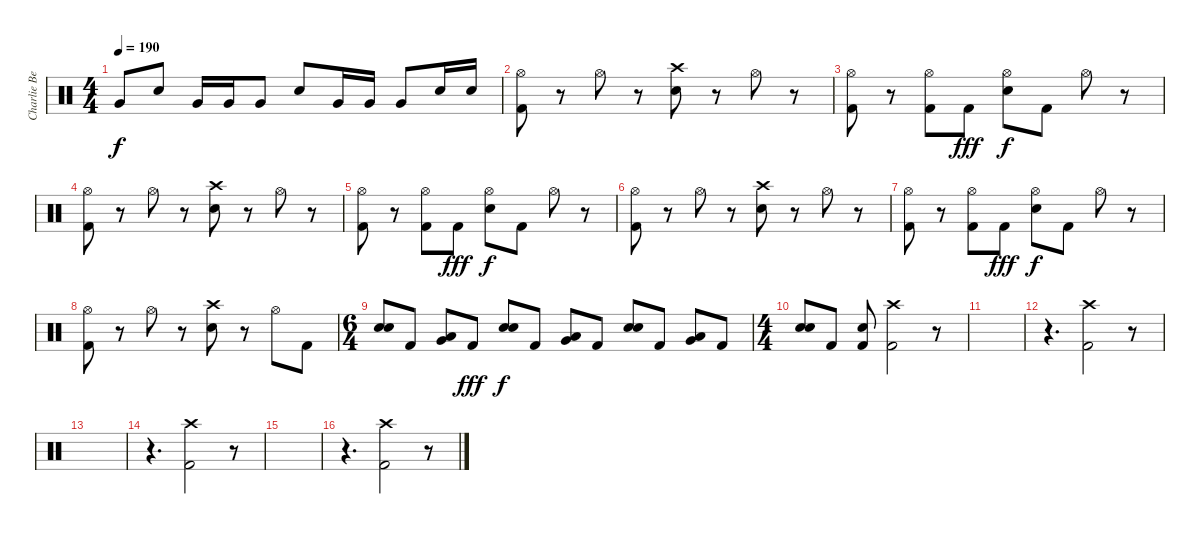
\track ("Charlie Benante" "Charlie Be") {instrument percussion}
\staff {score}
\articulation defaults
\ts (4 4)
\tempo 190
\clef neutral
\ks c "Very Low Tom (hit)".8{dy f} "Snare (hit) 2".8 "Very Low Tom (hit)".16 "Very Low Tom (hit)".16 "Very Low Tom (hit)".8 "Snare (hit) 2".8 "Very Low Tom (hit)".16 "Very Low Tom (hit)".16 "Very Low Tom (hit)".8 "Snare (hit) 2".16 "Snare (hit) 2".16
|
("Kick (hit) 2" "Hi-Hat (open)").8 r.8 "Hi-Hat (open)".8 r.8 ("Snare (hit) 2" "Crash high (hit)").8 r.8 "Hi-Hat (open)".8 r.8 |
("Kick (hit) 2" "Hi-Hat (open)").8 r.8 ("Kick (hit) 2" "Hi-Hat (open)").8 "Kick (hit) 2".8{dy fff} ("Snare (hit) 2" "Hi-Hat (open)").8{dy f} "Kick (hit) 2".8 "Hi-Hat (open)".8 r.8 |
("Kick (hit) 2" "Hi-Hat (open)").8 r.8 "Hi-Hat (open)".8 r.8 ("Snare (hit) 2" "Crash high (hit)").8 r.8 "Hi-Hat (open)".8 r.8 |
("Kick (hit) 2" "Hi-Hat (open)").8 r.8 ("Kick (hit) 2" "Hi-Hat (open)").8 "Kick (hit) 2".8{dy fff} ("Snare (hit) 2" "Hi-Hat (open)").8{dy f} "Kick (hit) 2".8 "Hi-Hat (open)".8 r.8 |
("Kick (hit) 2" "Hi-Hat (open)").8 r.8 "Hi-Hat (open)".8 r.8 ("Snare (hit) 2" "Crash high (hit)").8 r.8 "Hi-Hat (open)".8 r.8 |
("Kick (hit) 2" "Hi-Hat (open)").8 r.8 ("Kick (hit) 2" "Hi-Hat (open)").8 "Kick (hit) 2".8{dy fff} ("Snare (hit) 2" "Hi-Hat (open)").8{dy f} "Kick (hit) 2".8 "Hi-Hat (open)".8 r.8 |
("Kick (hit) 2" "Hi-Hat (open)").8 r.8 "Hi-Hat (open)".8 r.8 ("Snare (hit) 2" "Crash high (hit)").8 r.8 "Hi-Hat (open)".8 "Kick (hit) 2".8 |
\ts (6 4)
("Snare (hit) 2" "Snare (hit) 2").8 "Kick (hit) 2".8 ("Very Low Tom (hit)" "Low Floor Tom (hit)").8 "Kick (hit) 2".8{dy fff} ("Snare (hit) 2" "Snare (hit) 2").8{dy f} "Kick (hit) 2".8 ("Very Low Tom (hit)" "Low Floor Tom (hit)").8 "Kick (hit) 2".8 ("Snare (hit) 2" "Snare (hit) 2").8 "Kick (hit) 2".8 ("Very Low Tom (hit)" "Low Floor Tom (hit)").8 "Kick (hit) 2".8 |
\ts (4 4)
("Snare (hit) 2" "Snare (hit) 2").8 "Kick (hit) 2".8 ("Snare (hit) 2" "Kick (hit) 2").8 ("Kick (hit) 2" "Crash high (hit)").2 r.8 |
|
r.4{d} ("Kick (hit) 2" "Crash high (hit)").2 r.8 |
|
r.4{d} ("Kick (hit) 2" "Crash high (hit)").2 r.8 |
|
r.4{d} ("Kick (hit) 2" "Crash high (hit)").2 r.8
